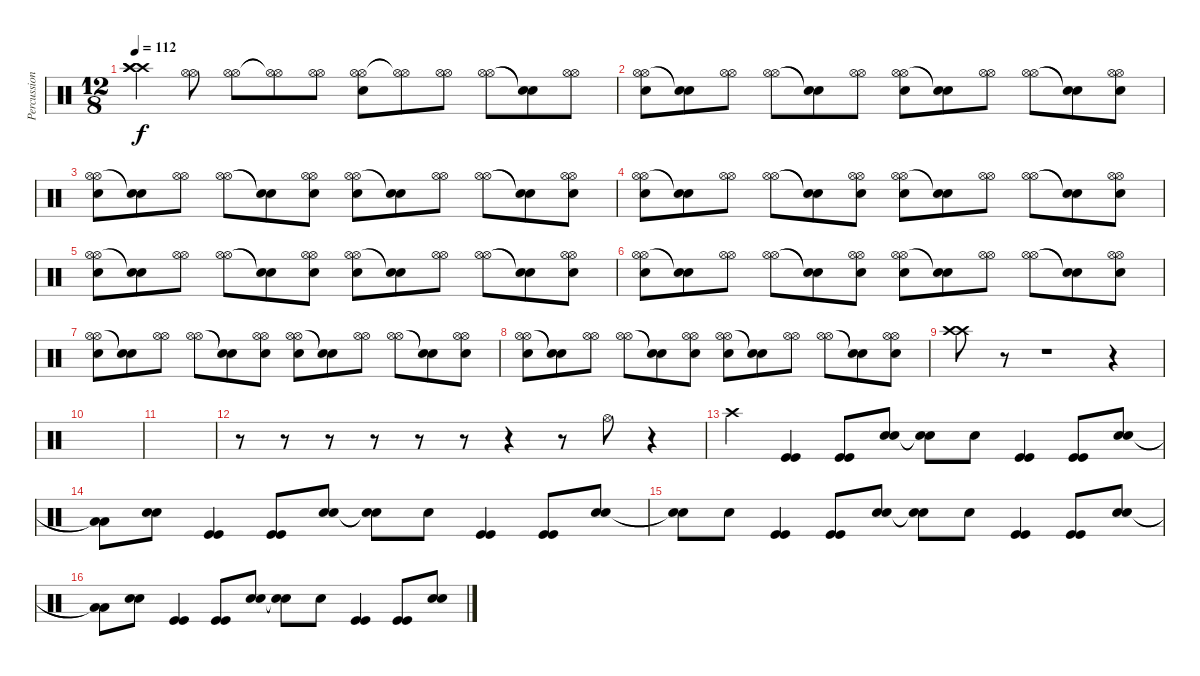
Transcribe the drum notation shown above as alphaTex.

\track ("Percussions" "Percussion") {instrument percussion}
\staff {score}
\articulation defaults
\ts (12 8)
\tempo 112
\clef neutral
\ks c
("Crash high (hit)" "Crash high (hit)" "Crash high (hit)").4{dy f} ("Hi-Hat (open)" "Hi-Hat (open)").8 ("Hi-Hat (open)" "Hi-Hat (open)").8 ("Hi-Hat (open)"{t} "Hi-Hat (open)"{t}).8 ("Hi-Hat (open)" "Hi-Hat (open)").8 ("Hi-Hat (open)" "Hi-Hat (open)" "Snare (hit) 2").8 ("Hi-Hat (open)"{t} "Hi-Hat (open)"{t}).8 ("Hi-Hat (open)" "Hi-Hat (open)").8 ("Hi-Hat (open)" "Hi-Hat (open)").8 ("Snare (hit)"{t} "Snare (hit)"{t}).8 ("Hi-Hat (open)" "Hi-Hat (open)").8 |
("Hi-Hat (open)" "Hi-Hat (open)" "Snare (hit) 2").8 ("Snare (hit)"{t} "Snare (hit)"{t}).8 ("Hi-Hat (open)" "Hi-Hat (open)").8 ("Hi-Hat (open)" "Hi-Hat (open)").8 ("Snare (hit)"{t} "Snare (hit)"{t}).8 ("Hi-Hat (open)" "Hi-Hat (open)").8 ("Hi-Hat (open)" "Hi-Hat (open)" "Snare (hit) 2").8 ("Snare (hit)"{t} "Snare (hit)"{t}).8 ("Hi-Hat (open)" "Hi-Hat (open)").8 ("Hi-Hat (open)" "Hi-Hat (open)").8 ("Snare (hit)"{t} "Snare (hit)"{t}).8 ("Hi-Hat (open)" "Hi-Hat (open)" "Snare (hit) 2").8 |
("Hi-Hat (open)" "Hi-Hat (open)" "Snare (hit) 2").8 ("Snare (hit)"{t} "Snare (hit)"{t}).8 ("Hi-Hat (open)" "Hi-Hat (open)").8 ("Hi-Hat (open)" "Hi-Hat (open)").8 ("Snare (hit)"{t} "Snare (hit)"{t}).8 ("Hi-Hat (open)" "Hi-Hat (open)" "Snare (hit) 2").8 ("Hi-Hat (open)" "Hi-Hat (open)" "Snare (hit) 2").8 ("Snare (hit)"{t} "Snare (hit)"{t}).8 ("Hi-Hat (open)" "Hi-Hat (open)").8 ("Hi-Hat (open)" "Hi-Hat (open)").8 ("Snare (hit)"{t} "Snare (hit)"{t}).8 ("Hi-Hat (open)" "Hi-Hat (open)" "Snare (hit) 2").8 |
("Hi-Hat (open)" "Hi-Hat (open)" "Snare (hit) 2").8 ("Snare (hit)"{t} "Snare (hit)"{t}).8 ("Hi-Hat (open)" "Hi-Hat (open)").8 ("Hi-Hat (open)" "Hi-Hat (open)").8 ("Snare (hit)"{t} "Snare (hit)"{t}).8 ("Hi-Hat (open)" "Hi-Hat (open)" "Snare (hit) 2").8 ("Hi-Hat (open)" "Hi-Hat (open)" "Snare (hit) 2").8 ("Snare (hit)"{t} "Snare (hit)"{t}).8 ("Hi-Hat (open)" "Hi-Hat (open)").8 ("Hi-Hat (open)" "Hi-Hat (open)").8 ("Snare (hit)"{t} "Snare (hit)"{t}).8 ("Hi-Hat (open)" "Hi-Hat (open)" "Snare (hit) 2").8 |
("Hi-Hat (open)" "Hi-Hat (open)" "Snare (hit) 2").8 ("Snare (hit)"{t} "Snare (hit)"{t}).8 ("Hi-Hat (open)" "Hi-Hat (open)").8 ("Hi-Hat (open)" "Hi-Hat (open)").8 ("Snare (hit)"{t} "Snare (hit)"{t}).8 ("Hi-Hat (open)" "Hi-Hat (open)" "Snare (hit) 2").8 ("Hi-Hat (open)" "Hi-Hat (open)" "Snare (hit) 2").8 ("Snare (hit)"{t} "Snare (hit)"{t}).8 ("Hi-Hat (open)" "Hi-Hat (open)").8 ("Hi-Hat (open)" "Hi-Hat (open)").8 ("Snare (hit)"{t} "Snare (hit)"{t}).8 ("Hi-Hat (open)" "Hi-Hat (open)" "Snare (hit) 2").8 |
("Hi-Hat (open)" "Hi-Hat (open)" "Snare (hit) 2").8 ("Snare (hit)"{t} "Snare (hit)"{t}).8 ("Hi-Hat (open)" "Hi-Hat (open)").8 ("Hi-Hat (open)" "Hi-Hat (open)").8 ("Snare (hit)"{t} "Snare (hit)"{t}).8 ("Hi-Hat (open)" "Hi-Hat (open)" "Snare (hit) 2").8 ("Hi-Hat (open)" "Hi-Hat (open)" "Snare (hit) 2").8 ("Snare (hit)"{t} "Snare (hit)"{t}).8 ("Hi-Hat (open)" "Hi-Hat (open)").8 ("Hi-Hat (open)" "Hi-Hat (open)").8 ("Snare (hit)"{t} "Snare (hit)"{t}).8 ("Hi-Hat (open)" "Hi-Hat (open)" "Snare (hit) 2").8 |
("Hi-Hat (open)" "Hi-Hat (open)" "Snare (hit) 2").8 ("Snare (hit)"{t} "Snare (hit)"{t}).8 ("Hi-Hat (open)" "Hi-Hat (open)").8 ("Hi-Hat (open)" "Hi-Hat (open)").8 ("Snare (hit)"{t} "Snare (hit)"{t}).8 ("Hi-Hat (open)" "Hi-Hat (open)" "Snare (hit) 2").8 ("Hi-Hat (open)" "Hi-Hat (open)" "Snare (hit) 2").8 ("Snare (hit)"{t} "Snare (hit)"{t}).8 ("Hi-Hat (open)" "Hi-Hat (open)").8 ("Hi-Hat (open)" "Hi-Hat (open)").8 ("Snare (hit)"{t} "Snare (hit)"{t}).8 ("Hi-Hat (open)" "Hi-Hat (open)" "Snare (hit) 2").8 |
("Hi-Hat (open)" "Hi-Hat (open)" "Snare (hit) 2").8 ("Snare (hit)"{t} "Snare (hit)"{t}).8 ("Hi-Hat (open)" "Hi-Hat (open)").8 ("Hi-Hat (open)" "Hi-Hat (open)").8 ("Snare (hit)"{t} "Snare (hit)"{t}).8 ("Hi-Hat (open)" "Hi-Hat (open)" "Snare (hit) 2").8 ("Hi-Hat (open)" "Hi-Hat (open)" "Snare (hit) 2").8 ("Snare (hit)"{t} "Snare (hit)"{t}).8 ("Hi-Hat (open)" "Hi-Hat (open)").8 ("Hi-Hat (open)" "Hi-Hat (open)").8 ("Snare (hit)"{t} "Snare (hit)"{t}).8 ("Hi-Hat (open)" "Hi-Hat (open)" "Snare (hit) 2").8 |
("Crash high (hit)" "Crash high (hit)").8 r.8 r.1 r.4 |
|
|
r.8 r.8 r.8 r.8 r.8 r.8 r.4 r.8 "Hi-Hat (open)".8 r.4 |
"Crash high (hit)".4 ("Kick (hit)" "Kick (hit)").4 ("Kick (hit)" "Kick (hit)").8 ("Snare (hit) 2" "Snare (hit) 2").8 ("Snare (hit)"{t} "Snare (hit)"{t}).8 "Snare (hit) 2".8 ("Kick (hit)" "Kick (hit)").4 ("Kick (hit)" "Kick (hit)").8 ("Snare (hit) 2" "Snare (hit) 2").8 |
("Low Floor Tom (hit)"{t} "Low Floor Tom (hit)"{t}).8 ("Snare (hit) 2" "Snare (hit) 2").8 ("Kick (hit)" "Kick (hit)").4 ("Kick (hit)" "Kick (hit)").8 ("Snare (hit) 2" "Snare (hit) 2").8 ("Snare (hit)"{t} "Snare (hit)"{t}).8 "Snare (hit) 2".8 ("Kick (hit)" "Kick (hit)").4 ("Kick (hit)" "Kick (hit)").8 ("Snare (hit) 2" "Snare (hit) 2").8 |
("Snare (hit)"{t} "Snare (hit)"{t}).8 "Snare (hit) 2".8 ("Kick (hit)" "Kick (hit)").4 ("Kick (hit)" "Kick (hit)").8 ("Snare (hit) 2" "Snare (hit) 2").8 ("Snare (hit)"{t} "Snare (hit)"{t}).8 "Snare (hit) 2".8 ("Kick (hit)" "Kick (hit)").4 ("Kick (hit)" "Kick (hit)").8 ("Snare (hit) 2" "Snare (hit) 2").8 |
("Low Floor Tom (hit)"{t} "Low Floor Tom (hit)"{t}).8 ("Snare (hit) 2" "Snare (hit) 2").8 ("Kick (hit)" "Kick (hit)").4 ("Kick (hit)" "Kick (hit)").8 ("Snare (hit) 2" "Snare (hit) 2").8 ("Snare (hit)"{t} "Snare (hit)"{t}).8 "Snare (hit) 2".8 ("Kick (hit)" "Kick (hit)").4 ("Kick (hit)" "Kick (hit)").8 ("Snare (hit) 2" "Snare (hit) 2").8
